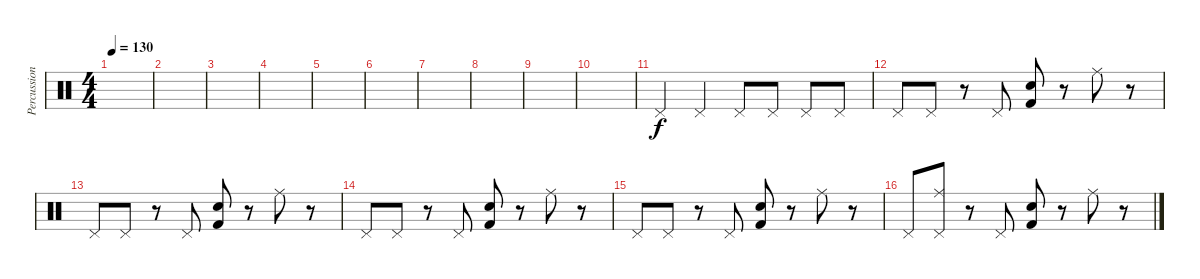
\track ("Percussions" "Percussion") {instrument percussion}
\staff {score}
\articulation defaults
\ts (4 4)
\tempo 130
\clef neutral
\ks c
|
|
|
|
|
|
|
|
|
|
"Pedal Hi-Hat (hit)".4 "Pedal Hi-Hat (hit)".4 "Pedal Hi-Hat (hit)".8 "Pedal Hi-Hat (hit)".8 "Pedal Hi-Hat (hit)".8 "Pedal Hi-Hat (hit)".8 |
"Pedal Hi-Hat (hit)".8 "Pedal Hi-Hat (hit)".8 r.8 "Pedal Hi-Hat (hit)".8 ("Kick (hit) 2" "Electric Snare (hit)").8 r.8 "Ride (middle)".8 r.8 |
"Pedal Hi-Hat (hit)".8 "Pedal Hi-Hat (hit)".8 r.8 "Pedal Hi-Hat (hit)".8 ("Kick (hit) 2" "Electric Snare (hit)").8 r.8 "Ride (middle)".8 r.8 |
"Pedal Hi-Hat (hit)".8 "Pedal Hi-Hat (hit)".8 r.8 "Pedal Hi-Hat (hit)".8 ("Kick (hit) 2" "Electric Snare (hit)").8 r.8 "Ride (middle)".8 r.8 |
"Pedal Hi-Hat (hit)".8 "Pedal Hi-Hat (hit)".8 r.8 "Pedal Hi-Hat (hit)".8 ("Kick (hit) 2" "Electric Snare (hit)").8 r.8 "Ride (middle)".8 r.8 |
"Pedal Hi-Hat (hit)".8 ("Ride (middle)" "Pedal Hi-Hat (hit)").8 r.8 "Pedal Hi-Hat (hit)".8 ("Kick (hit) 2" "Electric Snare (hit)").8 r.8 "Ride (middle)".8 r.8
